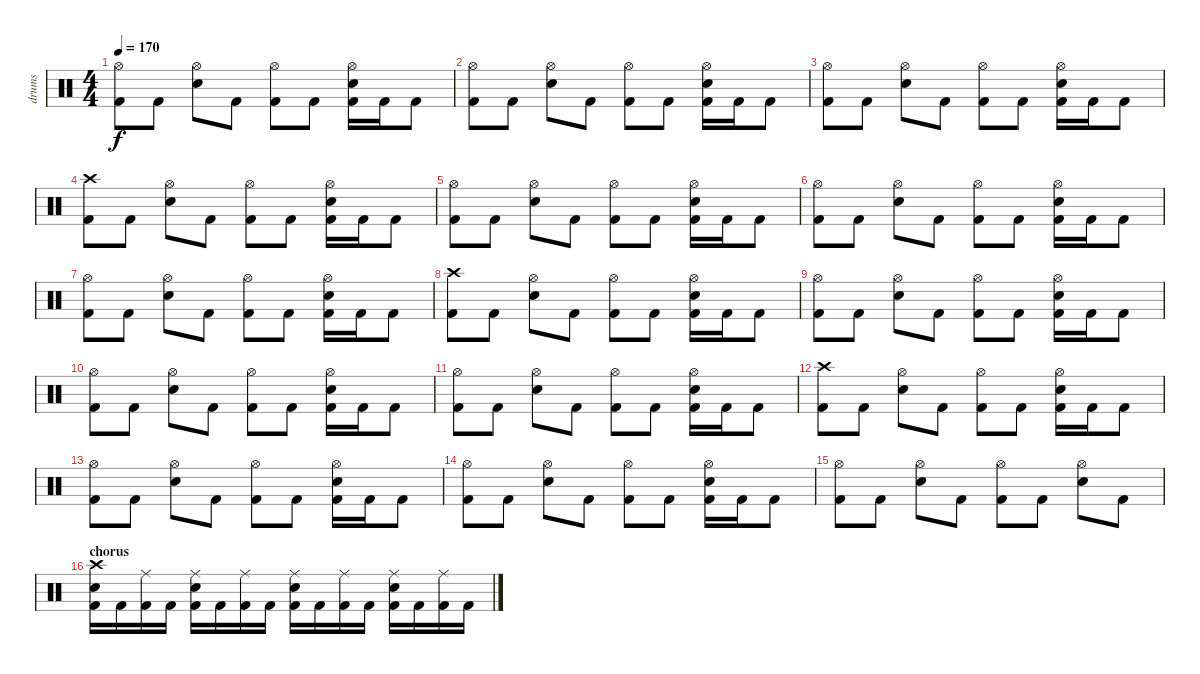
\track ("drums" "drums") {instrument percussion}
\staff {score}
\articulation defaults
\ts (4 4)
\tempo 170
\clef neutral
\ks c
("Hi-Hat (open)" "Kick (hit) 2").8{dy f} "Kick (hit) 2".8 ("Hi-Hat (open)" "Electric Snare (hit)").8 "Kick (hit) 2".8 ("Hi-Hat (open)" "Kick (hit) 2").8 "Kick (hit) 2".8 ("Hi-Hat (open)" "Electric Snare (hit)" "Kick (hit) 2").16 "Kick (hit) 2".16 "Kick (hit) 2".8 |
("Hi-Hat (open)" "Kick (hit) 2").8 "Kick (hit) 2".8 ("Hi-Hat (open)" "Electric Snare (hit)").8 "Kick (hit) 2".8 ("Hi-Hat (open)" "Kick (hit) 2").8 "Kick (hit) 2".8 ("Hi-Hat (open)" "Electric Snare (hit)" "Kick (hit) 2").16 "Kick (hit) 2".16 "Kick (hit) 2".8 |
("Hi-Hat (open)" "Kick (hit) 2").8 "Kick (hit) 2".8 ("Hi-Hat (open)" "Electric Snare (hit)").8 "Kick (hit) 2".8 ("Hi-Hat (open)" "Kick (hit) 2").8 "Kick (hit) 2".8 ("Hi-Hat (open)" "Electric Snare (hit)" "Kick (hit) 2").16 "Kick (hit) 2".16 "Kick (hit) 2".8 |
("Crash high (hit)" "Kick (hit) 2").8 "Kick (hit) 2".8 ("Hi-Hat (open)" "Electric Snare (hit)").8 "Kick (hit) 2".8 ("Hi-Hat (open)" "Kick (hit) 2").8 "Kick (hit) 2".8 ("Hi-Hat (open)" "Electric Snare (hit)" "Kick (hit) 2").16 "Kick (hit) 2".16 "Kick (hit) 2".8 |
("Hi-Hat (open)" "Kick (hit) 2").8 "Kick (hit) 2".8 ("Hi-Hat (open)" "Electric Snare (hit)").8 "Kick (hit) 2".8 ("Hi-Hat (open)" "Kick (hit) 2").8 "Kick (hit) 2".8 ("Hi-Hat (open)" "Electric Snare (hit)" "Kick (hit) 2").16 "Kick (hit) 2".16 "Kick (hit) 2".8 |
("Hi-Hat (open)" "Kick (hit) 2").8 "Kick (hit) 2".8 ("Hi-Hat (open)" "Electric Snare (hit)").8 "Kick (hit) 2".8 ("Hi-Hat (open)" "Kick (hit) 2").8 "Kick (hit) 2".8 ("Hi-Hat (open)" "Electric Snare (hit)" "Kick (hit) 2").16 "Kick (hit) 2".16 "Kick (hit) 2".8 |
("Hi-Hat (open)" "Kick (hit) 2").8 "Kick (hit) 2".8 ("Hi-Hat (open)" "Electric Snare (hit)").8 "Kick (hit) 2".8 ("Hi-Hat (open)" "Kick (hit) 2").8 "Kick (hit) 2".8 ("Hi-Hat (open)" "Electric Snare (hit)" "Kick (hit) 2").16 "Kick (hit) 2".16 "Kick (hit) 2".8 |
("Crash high (hit)" "Kick (hit) 2").8 "Kick (hit) 2".8 ("Hi-Hat (open)" "Electric Snare (hit)").8 "Kick (hit) 2".8 ("Hi-Hat (open)" "Kick (hit) 2").8 "Kick (hit) 2".8 ("Hi-Hat (open)" "Electric Snare (hit)" "Kick (hit) 2").16 "Kick (hit) 2".16 "Kick (hit) 2".8 |
("Hi-Hat (open)" "Kick (hit) 2").8 "Kick (hit) 2".8 ("Hi-Hat (open)" "Electric Snare (hit)").8 "Kick (hit) 2".8 ("Hi-Hat (open)" "Kick (hit) 2").8 "Kick (hit) 2".8 ("Hi-Hat (open)" "Electric Snare (hit)" "Kick (hit) 2").16 "Kick (hit) 2".16 "Kick (hit) 2".8 |
("Hi-Hat (open)" "Kick (hit) 2").8 "Kick (hit) 2".8 ("Hi-Hat (open)" "Electric Snare (hit)").8 "Kick (hit) 2".8 ("Hi-Hat (open)" "Kick (hit) 2").8 "Kick (hit) 2".8 ("Hi-Hat (open)" "Electric Snare (hit)" "Kick (hit) 2").16 "Kick (hit) 2".16 "Kick (hit) 2".8 |
("Hi-Hat (open)" "Kick (hit) 2").8 "Kick (hit) 2".8 ("Hi-Hat (open)" "Electric Snare (hit)").8 "Kick (hit) 2".8 ("Hi-Hat (open)" "Kick (hit) 2").8 "Kick (hit) 2".8 ("Hi-Hat (open)" "Electric Snare (hit)" "Kick (hit) 2").16 "Kick (hit) 2".16 "Kick (hit) 2".8 |
("Crash high (hit)" "Kick (hit) 2").8 "Kick (hit) 2".8 ("Hi-Hat (open)" "Electric Snare (hit)").8 "Kick (hit) 2".8 ("Hi-Hat (open)" "Kick (hit) 2").8 "Kick (hit) 2".8 ("Hi-Hat (open)" "Electric Snare (hit)" "Kick (hit) 2").16 "Kick (hit) 2".16 "Kick (hit) 2".8 |
("Hi-Hat (open)" "Kick (hit) 2").8 "Kick (hit) 2".8 ("Hi-Hat (open)" "Electric Snare (hit)").8 "Kick (hit) 2".8 ("Hi-Hat (open)" "Kick (hit) 2").8 "Kick (hit) 2".8 ("Hi-Hat (open)" "Electric Snare (hit)" "Kick (hit) 2").16 "Kick (hit) 2".16 "Kick (hit) 2".8 |
("Hi-Hat (open)" "Kick (hit) 2").8 "Kick (hit) 2".8 ("Hi-Hat (open)" "Electric Snare (hit)").8 "Kick (hit) 2".8 ("Hi-Hat (open)" "Kick (hit) 2").8 "Kick (hit) 2".8 ("Hi-Hat (open)" "Electric Snare (hit)" "Kick (hit) 2").16 "Kick (hit) 2".16 "Kick (hit) 2".8 |
("Hi-Hat (open)" "Kick (hit) 2").8 "Kick (hit) 2".8 ("Hi-Hat (open)" "Electric Snare (hit)").8 "Kick (hit) 2".8 ("Hi-Hat (open)" "Kick (hit) 2").8 "Kick (hit) 2".8 ("Hi-Hat (open)" "Electric Snare (hit)").8 "Kick (hit) 2".8 |
\section ("" "chorus")
("Crash high (hit)" "Electric Snare (hit)" "Kick (hit) 2").16 "Kick (hit) 2".16 ("Ride (middle)" "Kick (hit) 2").16 "Kick (hit) 2".16 ("Ride (middle)" "Electric Snare (hit)" "Kick (hit) 2").16 "Kick (hit) 2".16 ("Ride (middle)" "Kick (hit) 2").16 "Kick (hit) 2".16 ("Ride (middle)" "Electric Snare (hit)" "Kick (hit) 2").16 "Kick (hit) 2".16 ("Ride (middle)" "Kick (hit) 2").16 "Kick (hit) 2".16 ("Ride (middle)" "Electric Snare (hit)" "Kick (hit) 2").16 "Kick (hit) 2".16 ("Ride (middle)" "Kick (hit) 2").16 "Kick (hit) 2".16
